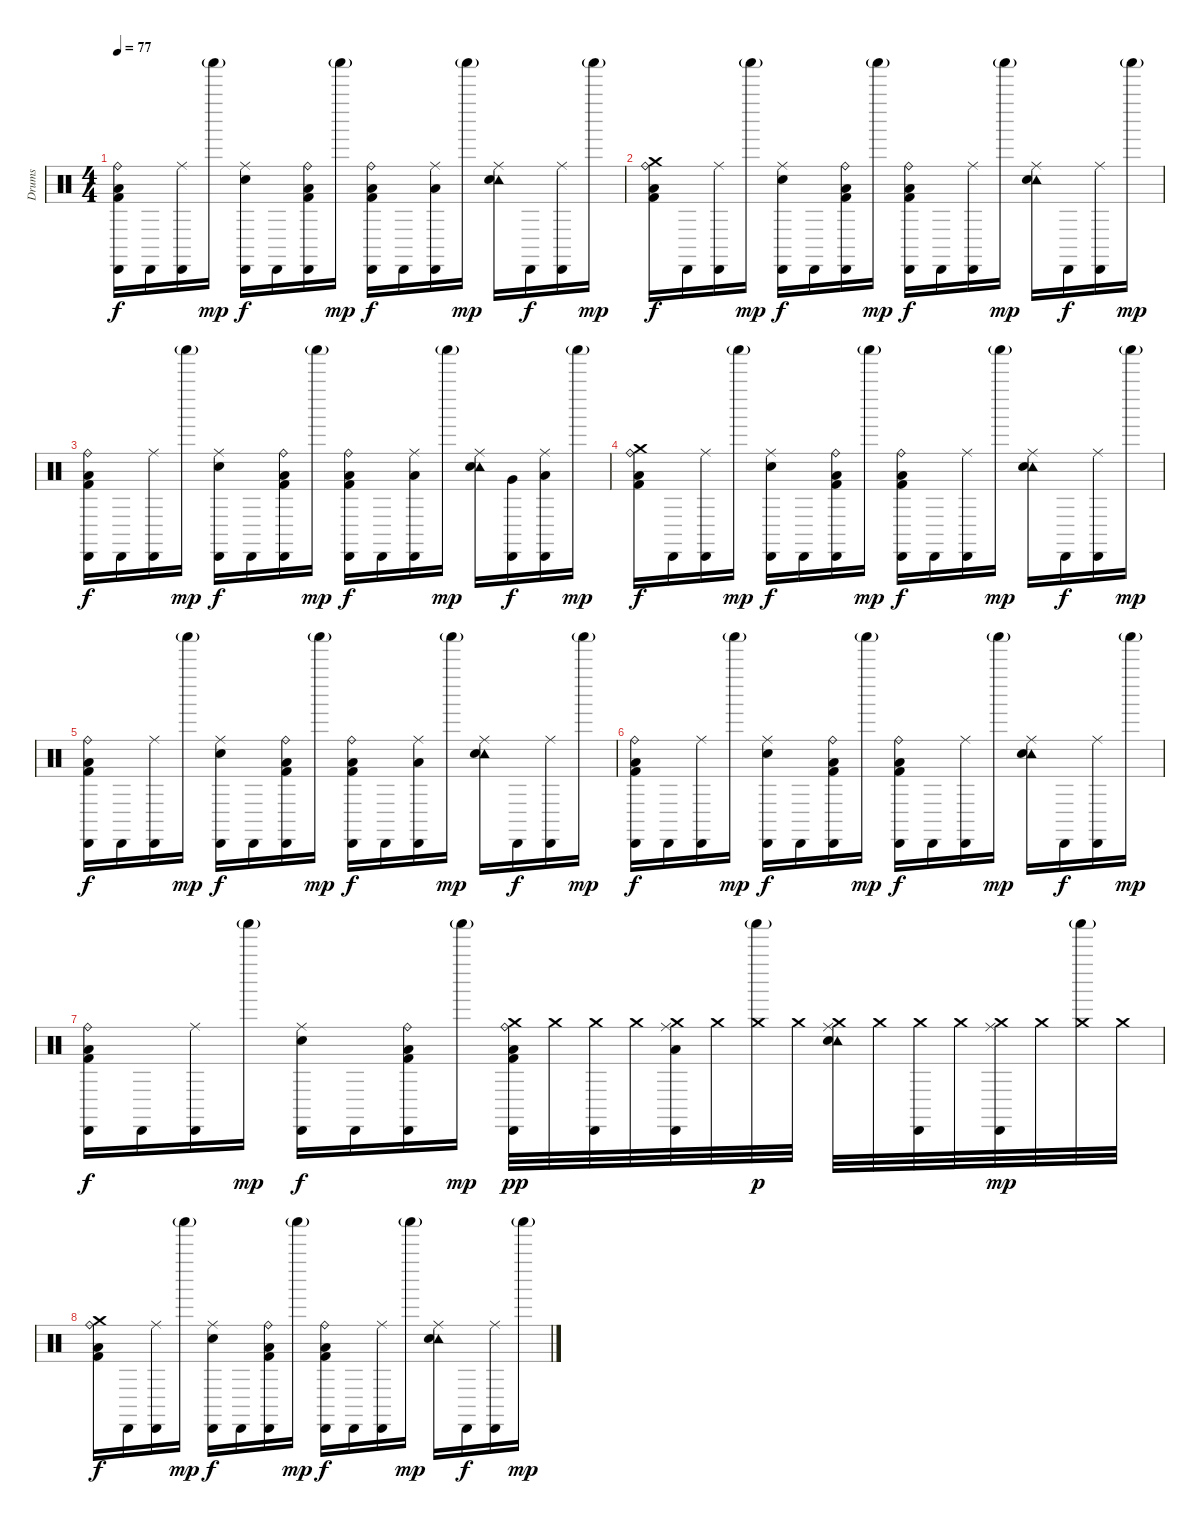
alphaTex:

\track ("Drums" "Drums") {instrument percussion}
\staff {score}
\articulation defaults
\ts (4 4)
\tempo 77
\clef neutral
\ks c
("Cabasa (hit)" "Ride (bell)" "Low Floor Tom (hit)" "Kick (hit) 2").16{dy f} "Cabasa (hit)".16 ("Cabasa (hit)" "Ride (middle)").16 "Shaker (hit)"{g}.16{dy mp} ("Cabasa (hit)" "Ride (middle)" "Snare (hit) 2").16{dy f} "Cabasa (hit)".16 ("Cabasa (hit)" "Ride (bell)" "Low Floor Tom (hit)" "Kick (hit) 2").16 "Shaker (hit)"{g}.16{dy mp} ("Cabasa (hit)" "Ride (bell)" "Low Floor Tom (hit)" "Kick (hit) 2").16{dy f} "Cabasa (hit)".16 ("Cabasa (hit)" "Ride (middle)" "Low Floor Tom (hit)").16 "Shaker (hit)"{g}.16{dy mp} ("Tambourine (hit)" "Ride (middle)" "Snare (hit) 2").16 "Cabasa (hit)".16{dy f} ("Cabasa (hit)" "Ride (middle)").16 "Shaker (hit)"{g}.16{dy mp} |
("Crash medium (hit)" "Ride (bell)" "Low Floor Tom (hit)" "Kick (hit) 2").16{dy f} "Cabasa (hit)".16 ("Cabasa (hit)" "Ride (middle)").16 "Shaker (hit)"{g}.16{dy mp} ("Cabasa (hit)" "Ride (middle)" "Snare (hit) 2").16{dy f} "Cabasa (hit)".16 ("Cabasa (hit)" "Ride (bell)" "Low Floor Tom (hit)" "Kick (hit) 2").16 "Shaker (hit)"{g}.16{dy mp} ("Cabasa (hit)" "Ride (bell)" "Low Floor Tom (hit)" "Kick (hit) 2").16{dy f} "Cabasa (hit)".16 ("Cabasa (hit)" "Ride (middle)").16 "Shaker (hit)"{g}.16{dy mp} ("Tambourine (hit)" "Ride (middle)" "Snare (hit) 2").16 "Cabasa (hit)".16{dy f} ("Cabasa (hit)" "Ride (middle)").16 "Shaker (hit)"{g}.16{dy mp} |
("Cabasa (hit)" "Ride (bell)" "Low Floor Tom (hit)" "Kick (hit) 2").16{dy f} "Cabasa (hit)".16 ("Cabasa (hit)" "Ride (middle)").16 "Shaker (hit)"{g}.16{dy mp} ("Cabasa (hit)" "Ride (middle)" "Snare (hit) 2").16{dy f} "Cabasa (hit)".16 ("Cabasa (hit)" "Ride (bell)" "Low Floor Tom (hit)" "Kick (hit) 2").16 "Shaker (hit)"{g}.16{dy mp} ("Cabasa (hit)" "Ride (bell)" "Low Floor Tom (hit)" "Kick (hit) 2").16{dy f} "Cabasa (hit)".16 ("Cabasa (hit)" "Ride (middle)" "Low Floor Tom (hit)").16 "Shaker (hit)"{g}.16{dy mp} ("Tambourine (hit)" "Ride (middle)" "Snare (hit) 2").16 ("Cabasa (hit)" "Very Low Tom (hit)").16{dy f} ("Cabasa (hit)" "Ride (middle)" "Low Floor Tom (hit)").16 "Shaker (hit)"{g}.16{dy mp} |
("Crash medium (hit)" "Ride (bell)" "Low Floor Tom (hit)" "Kick (hit) 2").16{dy f} "Cabasa (hit)".16 ("Cabasa (hit)" "Ride (middle)").16 "Shaker (hit)"{g}.16{dy mp} ("Cabasa (hit)" "Ride (middle)" "Snare (hit) 2").16{dy f} "Cabasa (hit)".16 ("Cabasa (hit)" "Ride (bell)" "Low Floor Tom (hit)" "Kick (hit) 2").16 "Shaker (hit)"{g}.16{dy mp} ("Cabasa (hit)" "Ride (bell)" "Low Floor Tom (hit)" "Kick (hit) 2").16{dy f} "Cabasa (hit)".16 ("Cabasa (hit)" "Ride (middle)").16 "Shaker (hit)"{g}.16{dy mp} ("Tambourine (hit)" "Ride (middle)" "Snare (hit) 2").16 "Cabasa (hit)".16{dy f} ("Cabasa (hit)" "Ride (middle)").16 "Shaker (hit)"{g}.16{dy mp} |
("Cabasa (hit)" "Ride (bell)" "Low Floor Tom (hit)" "Kick (hit) 2").16{dy f} "Cabasa (hit)".16 ("Cabasa (hit)" "Ride (middle)").16 "Shaker (hit)"{g}.16{dy mp} ("Cabasa (hit)" "Ride (middle)" "Snare (hit) 2").16{dy f} "Cabasa (hit)".16 ("Cabasa (hit)" "Ride (bell)" "Low Floor Tom (hit)" "Kick (hit) 2").16 "Shaker (hit)"{g}.16{dy mp} ("Cabasa (hit)" "Ride (bell)" "Low Floor Tom (hit)" "Kick (hit) 2").16{dy f} "Cabasa (hit)".16 ("Cabasa (hit)" "Ride (middle)" "Low Floor Tom (hit)").16 "Shaker (hit)"{g}.16{dy mp} ("Tambourine (hit)" "Ride (middle)" "Snare (hit) 2").16 "Cabasa (hit)".16{dy f} ("Cabasa (hit)" "Ride (middle)").16 "Shaker (hit)"{g}.16{dy mp} |
("Cabasa (hit)" "Ride (bell)" "Low Floor Tom (hit)" "Kick (hit) 2").16{dy f} "Cabasa (hit)".16 ("Cabasa (hit)" "Ride (middle)").16 "Shaker (hit)"{g}.16{dy mp} ("Cabasa (hit)" "Ride (middle)" "Snare (hit) 2").16{dy f} "Cabasa (hit)".16 ("Cabasa (hit)" "Ride (bell)" "Low Floor Tom (hit)" "Kick (hit) 2").16 "Shaker (hit)"{g}.16{dy mp} ("Cabasa (hit)" "Ride (bell)" "Low Floor Tom (hit)" "Kick (hit) 2").16{dy f} "Cabasa (hit)".16 ("Cabasa (hit)" "Ride (middle)").16 "Shaker (hit)"{g}.16{dy mp} ("Tambourine (hit)" "Ride (middle)" "Snare (hit) 2").16 "Cabasa (hit)".16{dy f} ("Cabasa (hit)" "Ride (middle)").16 "Shaker (hit)"{g}.16{dy mp} |
("Cabasa (hit)" "Ride (bell)" "Low Floor Tom (hit)" "Kick (hit) 2").16{dy f} "Cabasa (hit)".16 ("Cabasa (hit)" "Ride (middle)").16 "Shaker (hit)"{g}.16{dy mp} ("Cabasa (hit)" "Ride (middle)" "Snare (hit) 2").16{dy f} "Cabasa (hit)".16 ("Cabasa (hit)" "Ride (bell)" "Low Floor Tom (hit)" "Kick (hit) 2").16 "Shaker (hit)"{g}.16{dy mp} ("Cabasa (hit)" "Ride (bell)" "Low Floor Tom (hit)" "Kick (hit) 2" "Crash medium (hit)").32{dy pp} "Crash medium (hit)".32 ("Cabasa (hit)" "Crash medium (hit)").32 "Crash medium (hit)".32 ("Cabasa (hit)" "Ride (middle)" "Low Floor Tom (hit)" "Crash medium (hit)").32 "Crash medium (hit)".32 ("Shaker (hit)"{g} "Crash medium (hit)").32{dy p} "Crash medium (hit)".32 ("Tambourine (hit)" "Ride (middle)" "Snare (hit) 2" "Crash medium (hit)").32 "Crash medium (hit)".32 ("Cabasa (hit)" "Crash medium (hit)").32 "Crash medium (hit)".32 ("Cabasa (hit)" "Ride (middle)" "Crash medium (hit)").32{dy mp} "Crash medium (hit)".32 ("Shaker (hit)"{g} "Crash medium (hit)").32 "Crash medium (hit)".32 |
("Crash medium (hit)" "Ride (bell)" "Low Floor Tom (hit)" "Kick (hit) 2").16{dy f} "Cabasa (hit)".16 ("Cabasa (hit)" "Ride (middle)").16 "Shaker (hit)"{g}.16{dy mp} ("Cabasa (hit)" "Ride (middle)" "Snare (hit) 2").16{dy f} "Cabasa (hit)".16 ("Cabasa (hit)" "Ride (bell)" "Low Floor Tom (hit)" "Kick (hit) 2").16 "Shaker (hit)"{g}.16{dy mp} ("Cabasa (hit)" "Ride (bell)" "Low Floor Tom (hit)" "Kick (hit) 2").16{dy f} "Cabasa (hit)".16 ("Cabasa (hit)" "Ride (middle)").16 "Shaker (hit)"{g}.16{dy mp} ("Tambourine (hit)" "Ride (middle)" "Snare (hit) 2").16 "Cabasa (hit)".16{dy f} ("Cabasa (hit)" "Ride (middle)").16 "Shaker (hit)"{g}.16{dy mp}
